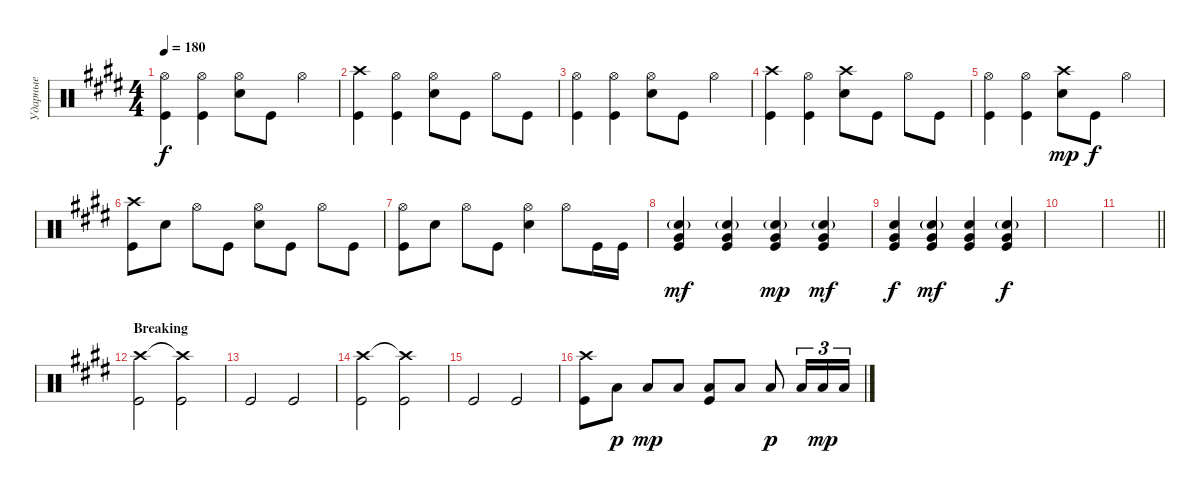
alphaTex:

\track ("Ударные" "Ударные") {instrument percussion}
\staff {score}
\articulation defaults
\ts (4 4)
\tempo 180
\clef neutral
\ks c#minor
("Kick (hit)" "Hi-Hat (open)").4{dy f} ("Hi-Hat (open)" "Kick (hit)").4 ("Snare (hit) 2" "Hi-Hat (open)").8 "Kick (hit)".8 "Hi-Hat (open)".4 |
("Kick (hit)" "Crash high (hit)").4 ("Kick (hit)" "Hi-Hat (open)").4 ("Snare (hit) 2" "Hi-Hat (open)").8 "Kick (hit)".8 "Hi-Hat (open)".8 "Kick (hit)".8 |
("Kick (hit)" "Hi-Hat (open)").4 ("Hi-Hat (open)" "Kick (hit)").4 ("Snare (hit) 2" "Hi-Hat (open)").8 "Kick (hit)".8 "Hi-Hat (open)".4 |
("Kick (hit)" "Crash high (hit)").4 ("Kick (hit)" "Hi-Hat (open)").4 ("Snare (hit) 2" "Crash high (hit)").8 "Kick (hit)".8 "Hi-Hat (open)".8 "Kick (hit)".8 |
("Kick (hit)" "Hi-Hat (open)").4 ("Hi-Hat (open)" "Kick (hit)").4 ("Snare (hit) 2" "Crash high (hit)").8{dy mp} "Kick (hit)".8{dy f} "Hi-Hat (open)".4 |
("Kick (hit)" "Crash high (hit)").8 "Snare (hit) 2".8 "Hi-Hat (open)".8 "Kick (hit)".8 ("Snare (hit) 2" "Hi-Hat (open)").8 "Kick (hit)".8 "Hi-Hat (open)".8 "Kick (hit)".8 |
("Kick (hit)" "Hi-Hat (open)").8 "Snare (hit) 2".8 "Hi-Hat (open)".8 "Kick (hit)".8 ("Snare (hit) 2" "Hi-Hat (open)").4 "Hi-Hat (open)".8 "Kick (hit)".16 "Kick (hit)".16 |
("Very Low Tom (hit)" "Kick (hit)" "Snare (hit) 2"{g}).4{bd 120 dy mf} ("Very Low Tom (hit)" "Kick (hit)" "Snare (hit) 2"{g}).4{bd 120} ("Very Low Tom (hit)" "Kick (hit)" "Snare (hit) 2"{g}).4{bd 120 dy mp} ("Very Low Tom (hit)" "Kick (hit)" "Snare (hit) 2"{g}).4{bd 120 dy mf} |
("Very Low Tom (hit)" "Kick (hit)" "Snare (hit) 2").4{bd 120 dy f} ("Very Low Tom (hit)" "Kick (hit)" "Snare (hit) 2"{g}).4{bd 120 dy mf} ("Very Low Tom (hit)" "Kick (hit)" "Snare (hit) 2").4{bd 120} ("Very Low Tom (hit)" "Kick (hit)" "Snare (hit) 2"{g}).4{bd 120 dy f} |
|
\barLineRight lightlight
|
\section ("" "Breaking")
("Kick (hit)" "Crash high (hit)").2 ("Kick (hit)" "Crash high (hit)"{t}).2 |
"Kick (hit)".2 "Kick (hit)".2 |
("Kick (hit)" "Crash high (hit)").2 ("Kick (hit)" "Crash high (hit)"{t}).2 |
"Kick (hit)".2 "Kick (hit)".2 |
("Kick (hit)" "Crash high (hit)").8 "Low Tom (hit)".8{dy p} "Low Tom (hit)".8{dy mp} "Low Tom (hit)".8 ("Low Tom (hit)" "Kick (hit)").8 "Low Tom (hit)".8 "Low Tom (hit)".8{dy p} "Low Tom (hit)".16{tu (3 2)} "Low Tom (hit)".16{tu (3 2) dy mp} "Low Tom (hit)".16{tu (3 2)}
